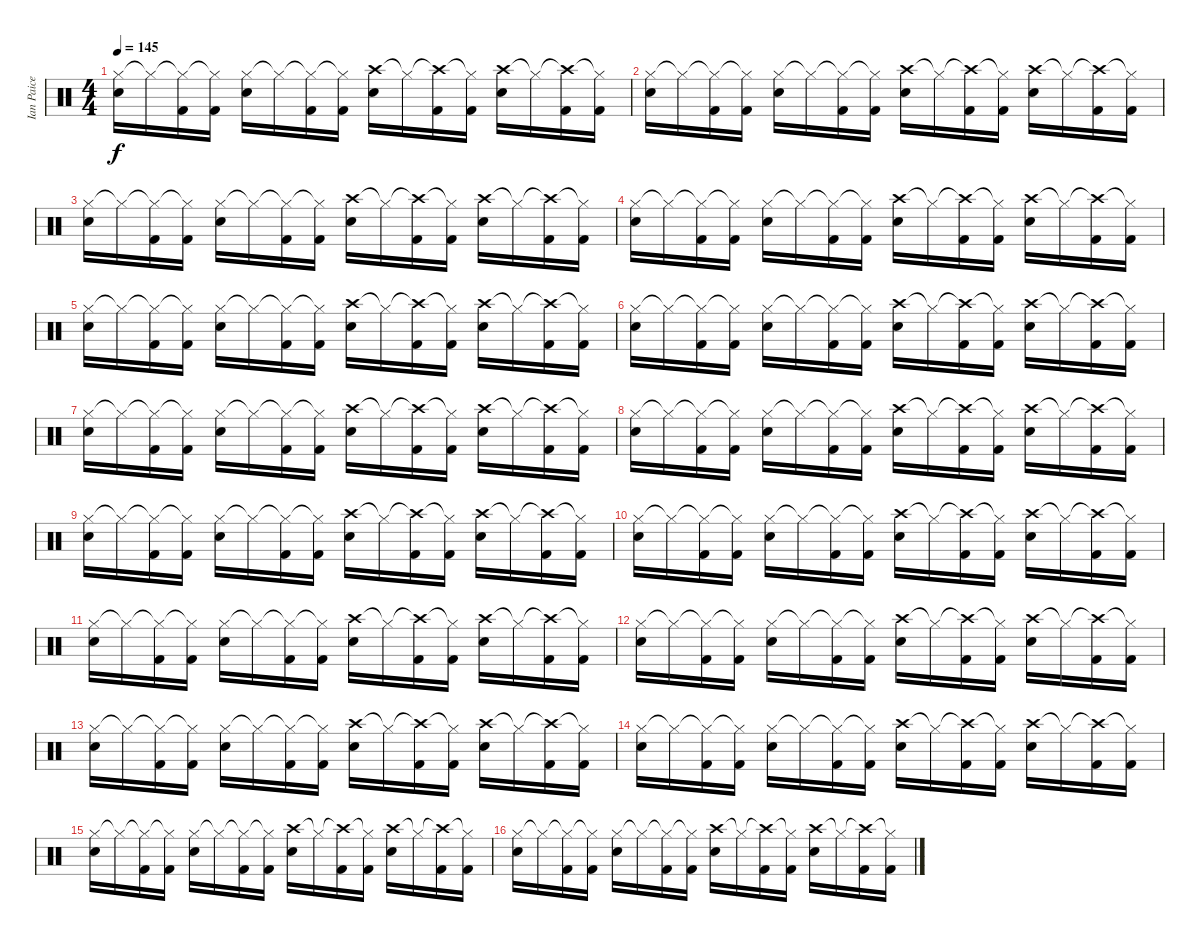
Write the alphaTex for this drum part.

\track ("Ian Paice" "Ian Paice") {instrument percussion}
\staff {score}
\articulation defaults
\ts (4 4)
\tempo 145
\clef neutral
\ks c
("Hi-Hat (closed)" "Snare (hit) 2").16{dy f} "Hi-Hat (closed)"{t}.16 ("Hi-Hat (closed)"{t} "Kick (hit) 2").16 ("Hi-Hat (closed)"{t} "Kick (hit) 2").16 ("Hi-Hat (closed)" "Snare (hit) 2").16 "Hi-Hat (closed)"{t}.16 ("Hi-Hat (closed)"{t} "Kick (hit) 2").16 ("Hi-Hat (closed)"{t} "Kick (hit) 2").16 ("Crash high (hit)" "Snare (hit) 2").16 "Hi-Hat (closed)"{t}.16 ("Crash high (hit)"{t} "Kick (hit) 2").16 ("Hi-Hat (closed)"{t} "Kick (hit) 2").16 ("Crash high (hit)" "Snare (hit) 2").16 "Hi-Hat (closed)"{t}.16 ("Crash high (hit)"{t} "Kick (hit) 2").16 ("Hi-Hat (closed)"{t} "Kick (hit) 2").16 |
("Hi-Hat (closed)" "Snare (hit) 2").16 "Hi-Hat (closed)"{t}.16 ("Hi-Hat (closed)"{t} "Kick (hit) 2").16 ("Hi-Hat (closed)"{t} "Kick (hit) 2").16 ("Hi-Hat (closed)" "Snare (hit) 2").16 "Hi-Hat (closed)"{t}.16 ("Hi-Hat (closed)"{t} "Kick (hit) 2").16 ("Hi-Hat (closed)"{t} "Kick (hit) 2").16 ("Crash high (hit)" "Snare (hit) 2").16 "Hi-Hat (closed)"{t}.16 ("Crash high (hit)"{t} "Kick (hit) 2").16 ("Hi-Hat (closed)"{t} "Kick (hit) 2").16 ("Crash high (hit)" "Snare (hit) 2").16 "Hi-Hat (closed)"{t}.16 ("Crash high (hit)"{t} "Kick (hit) 2").16 ("Hi-Hat (closed)"{t} "Kick (hit) 2").16 |
("Hi-Hat (closed)" "Snare (hit) 2").16 "Hi-Hat (closed)"{t}.16 ("Hi-Hat (closed)"{t} "Kick (hit) 2").16 ("Hi-Hat (closed)"{t} "Kick (hit) 2").16 ("Hi-Hat (closed)" "Snare (hit) 2").16 "Hi-Hat (closed)"{t}.16 ("Hi-Hat (closed)"{t} "Kick (hit) 2").16 ("Hi-Hat (closed)"{t} "Kick (hit) 2").16 ("Crash high (hit)" "Snare (hit) 2").16 "Hi-Hat (closed)"{t}.16 ("Crash high (hit)"{t} "Kick (hit) 2").16 ("Hi-Hat (closed)"{t} "Kick (hit) 2").16 ("Crash high (hit)" "Snare (hit) 2").16 "Hi-Hat (closed)"{t}.16 ("Crash high (hit)"{t} "Kick (hit) 2").16 ("Hi-Hat (closed)"{t} "Kick (hit) 2").16 |
("Hi-Hat (closed)" "Snare (hit) 2").16 "Hi-Hat (closed)"{t}.16 ("Hi-Hat (closed)"{t} "Kick (hit) 2").16 ("Hi-Hat (closed)"{t} "Kick (hit) 2").16 ("Hi-Hat (closed)" "Snare (hit) 2").16 "Hi-Hat (closed)"{t}.16 ("Hi-Hat (closed)"{t} "Kick (hit) 2").16 ("Hi-Hat (closed)"{t} "Kick (hit) 2").16 ("Crash high (hit)" "Snare (hit) 2").16 "Hi-Hat (closed)"{t}.16 ("Crash high (hit)"{t} "Kick (hit) 2").16 ("Hi-Hat (closed)"{t} "Kick (hit) 2").16 ("Crash high (hit)" "Snare (hit) 2").16 "Hi-Hat (closed)"{t}.16 ("Crash high (hit)"{t} "Kick (hit) 2").16 ("Hi-Hat (closed)"{t} "Kick (hit) 2").16 |
("Hi-Hat (closed)" "Snare (hit) 2").16 "Hi-Hat (closed)"{t}.16 ("Hi-Hat (closed)"{t} "Kick (hit) 2").16 ("Hi-Hat (closed)"{t} "Kick (hit) 2").16 ("Hi-Hat (closed)" "Snare (hit) 2").16 "Hi-Hat (closed)"{t}.16 ("Hi-Hat (closed)"{t} "Kick (hit) 2").16 ("Hi-Hat (closed)"{t} "Kick (hit) 2").16 ("Crash high (hit)" "Snare (hit) 2").16 "Hi-Hat (closed)"{t}.16 ("Crash high (hit)"{t} "Kick (hit) 2").16 ("Hi-Hat (closed)"{t} "Kick (hit) 2").16 ("Crash high (hit)" "Snare (hit) 2").16 "Hi-Hat (closed)"{t}.16 ("Crash high (hit)"{t} "Kick (hit) 2").16 ("Hi-Hat (closed)"{t} "Kick (hit) 2").16 |
("Hi-Hat (closed)" "Snare (hit) 2").16 "Hi-Hat (closed)"{t}.16 ("Hi-Hat (closed)"{t} "Kick (hit) 2").16 ("Hi-Hat (closed)"{t} "Kick (hit) 2").16 ("Hi-Hat (closed)" "Snare (hit) 2").16 "Hi-Hat (closed)"{t}.16 ("Hi-Hat (closed)"{t} "Kick (hit) 2").16 ("Hi-Hat (closed)"{t} "Kick (hit) 2").16 ("Crash high (hit)" "Snare (hit) 2").16 "Hi-Hat (closed)"{t}.16 ("Crash high (hit)"{t} "Kick (hit) 2").16 ("Hi-Hat (closed)"{t} "Kick (hit) 2").16 ("Crash high (hit)" "Snare (hit) 2").16 "Hi-Hat (closed)"{t}.16 ("Crash high (hit)"{t} "Kick (hit) 2").16 ("Hi-Hat (closed)"{t} "Kick (hit) 2").16 |
("Hi-Hat (closed)" "Snare (hit) 2").16 "Hi-Hat (closed)"{t}.16 ("Hi-Hat (closed)"{t} "Kick (hit) 2").16 ("Hi-Hat (closed)"{t} "Kick (hit) 2").16 ("Hi-Hat (closed)" "Snare (hit) 2").16 "Hi-Hat (closed)"{t}.16 ("Hi-Hat (closed)"{t} "Kick (hit) 2").16 ("Hi-Hat (closed)"{t} "Kick (hit) 2").16 ("Crash high (hit)" "Snare (hit) 2").16 "Hi-Hat (closed)"{t}.16 ("Crash high (hit)"{t} "Kick (hit) 2").16 ("Hi-Hat (closed)"{t} "Kick (hit) 2").16 ("Crash high (hit)" "Snare (hit) 2").16 "Hi-Hat (closed)"{t}.16 ("Crash high (hit)"{t} "Kick (hit) 2").16 ("Hi-Hat (closed)"{t} "Kick (hit) 2").16 |
("Hi-Hat (closed)" "Snare (hit) 2").16 "Hi-Hat (closed)"{t}.16 ("Hi-Hat (closed)"{t} "Kick (hit) 2").16 ("Hi-Hat (closed)"{t} "Kick (hit) 2").16 ("Hi-Hat (closed)" "Snare (hit) 2").16 "Hi-Hat (closed)"{t}.16 ("Hi-Hat (closed)"{t} "Kick (hit) 2").16 ("Hi-Hat (closed)"{t} "Kick (hit) 2").16 ("Crash high (hit)" "Snare (hit) 2").16 "Hi-Hat (closed)"{t}.16 ("Crash high (hit)"{t} "Kick (hit) 2").16 ("Hi-Hat (closed)"{t} "Kick (hit) 2").16 ("Crash high (hit)" "Snare (hit) 2").16 "Hi-Hat (closed)"{t}.16 ("Crash high (hit)"{t} "Kick (hit) 2").16 ("Hi-Hat (closed)"{t} "Kick (hit) 2").16 |
("Hi-Hat (closed)" "Snare (hit) 2").16 "Hi-Hat (closed)"{t}.16 ("Hi-Hat (closed)"{t} "Kick (hit) 2").16 ("Hi-Hat (closed)"{t} "Kick (hit) 2").16 ("Hi-Hat (closed)" "Snare (hit) 2").16 "Hi-Hat (closed)"{t}.16 ("Hi-Hat (closed)"{t} "Kick (hit) 2").16 ("Hi-Hat (closed)"{t} "Kick (hit) 2").16 ("Crash high (hit)" "Snare (hit) 2").16 "Hi-Hat (closed)"{t}.16 ("Crash high (hit)"{t} "Kick (hit) 2").16 ("Hi-Hat (closed)"{t} "Kick (hit) 2").16 ("Crash high (hit)" "Snare (hit) 2").16 "Hi-Hat (closed)"{t}.16 ("Crash high (hit)"{t} "Kick (hit) 2").16 ("Hi-Hat (closed)"{t} "Kick (hit) 2").16 |
("Hi-Hat (closed)" "Snare (hit) 2").16 "Hi-Hat (closed)"{t}.16 ("Hi-Hat (closed)"{t} "Kick (hit) 2").16 ("Hi-Hat (closed)"{t} "Kick (hit) 2").16 ("Hi-Hat (closed)" "Snare (hit) 2").16 "Hi-Hat (closed)"{t}.16 ("Hi-Hat (closed)"{t} "Kick (hit) 2").16 ("Hi-Hat (closed)"{t} "Kick (hit) 2").16 ("Crash high (hit)" "Snare (hit) 2").16 "Hi-Hat (closed)"{t}.16 ("Crash high (hit)"{t} "Kick (hit) 2").16 ("Hi-Hat (closed)"{t} "Kick (hit) 2").16 ("Crash high (hit)" "Snare (hit) 2").16 "Hi-Hat (closed)"{t}.16 ("Crash high (hit)"{t} "Kick (hit) 2").16 ("Hi-Hat (closed)"{t} "Kick (hit) 2").16 |
("Hi-Hat (closed)" "Snare (hit) 2").16 "Hi-Hat (closed)"{t}.16 ("Hi-Hat (closed)"{t} "Kick (hit) 2").16 ("Hi-Hat (closed)"{t} "Kick (hit) 2").16 ("Hi-Hat (closed)" "Snare (hit) 2").16 "Hi-Hat (closed)"{t}.16 ("Hi-Hat (closed)"{t} "Kick (hit) 2").16 ("Hi-Hat (closed)"{t} "Kick (hit) 2").16 ("Crash high (hit)" "Snare (hit) 2").16 "Hi-Hat (closed)"{t}.16 ("Crash high (hit)"{t} "Kick (hit) 2").16 ("Hi-Hat (closed)"{t} "Kick (hit) 2").16 ("Crash high (hit)" "Snare (hit) 2").16 "Hi-Hat (closed)"{t}.16 ("Crash high (hit)"{t} "Kick (hit) 2").16 ("Hi-Hat (closed)"{t} "Kick (hit) 2").16 |
("Hi-Hat (closed)" "Snare (hit) 2").16 "Hi-Hat (closed)"{t}.16 ("Hi-Hat (closed)"{t} "Kick (hit) 2").16 ("Hi-Hat (closed)"{t} "Kick (hit) 2").16 ("Hi-Hat (closed)" "Snare (hit) 2").16 "Hi-Hat (closed)"{t}.16 ("Hi-Hat (closed)"{t} "Kick (hit) 2").16 ("Hi-Hat (closed)"{t} "Kick (hit) 2").16 ("Crash high (hit)" "Snare (hit) 2").16 "Hi-Hat (closed)"{t}.16 ("Crash high (hit)"{t} "Kick (hit) 2").16 ("Hi-Hat (closed)"{t} "Kick (hit) 2").16 ("Crash high (hit)" "Snare (hit) 2").16 "Hi-Hat (closed)"{t}.16 ("Crash high (hit)"{t} "Kick (hit) 2").16 ("Hi-Hat (closed)"{t} "Kick (hit) 2").16 |
("Hi-Hat (closed)" "Snare (hit) 2").16 "Hi-Hat (closed)"{t}.16 ("Hi-Hat (closed)"{t} "Kick (hit) 2").16 ("Hi-Hat (closed)"{t} "Kick (hit) 2").16 ("Hi-Hat (closed)" "Snare (hit) 2").16 "Hi-Hat (closed)"{t}.16 ("Hi-Hat (closed)"{t} "Kick (hit) 2").16 ("Hi-Hat (closed)"{t} "Kick (hit) 2").16 ("Crash high (hit)" "Snare (hit) 2").16 "Hi-Hat (closed)"{t}.16 ("Crash high (hit)"{t} "Kick (hit) 2").16 ("Hi-Hat (closed)"{t} "Kick (hit) 2").16 ("Crash high (hit)" "Snare (hit) 2").16 "Hi-Hat (closed)"{t}.16 ("Crash high (hit)"{t} "Kick (hit) 2").16 ("Hi-Hat (closed)"{t} "Kick (hit) 2").16 |
("Hi-Hat (closed)" "Snare (hit) 2").16 "Hi-Hat (closed)"{t}.16 ("Hi-Hat (closed)"{t} "Kick (hit) 2").16 ("Hi-Hat (closed)"{t} "Kick (hit) 2").16 ("Hi-Hat (closed)" "Snare (hit) 2").16 "Hi-Hat (closed)"{t}.16 ("Hi-Hat (closed)"{t} "Kick (hit) 2").16 ("Hi-Hat (closed)"{t} "Kick (hit) 2").16 ("Crash high (hit)" "Snare (hit) 2").16 "Hi-Hat (closed)"{t}.16 ("Crash high (hit)"{t} "Kick (hit) 2").16 ("Hi-Hat (closed)"{t} "Kick (hit) 2").16 ("Crash high (hit)" "Snare (hit) 2").16 "Hi-Hat (closed)"{t}.16 ("Crash high (hit)"{t} "Kick (hit) 2").16 ("Hi-Hat (closed)"{t} "Kick (hit) 2").16 |
("Hi-Hat (closed)" "Snare (hit) 2").16 "Hi-Hat (closed)"{t}.16 ("Hi-Hat (closed)"{t} "Kick (hit) 2").16 ("Hi-Hat (closed)"{t} "Kick (hit) 2").16 ("Hi-Hat (closed)" "Snare (hit) 2").16 "Hi-Hat (closed)"{t}.16 ("Hi-Hat (closed)"{t} "Kick (hit) 2").16 ("Hi-Hat (closed)"{t} "Kick (hit) 2").16 ("Crash high (hit)" "Snare (hit) 2").16 "Hi-Hat (closed)"{t}.16 ("Crash high (hit)"{t} "Kick (hit) 2").16 ("Hi-Hat (closed)"{t} "Kick (hit) 2").16 ("Crash high (hit)" "Snare (hit) 2").16 "Hi-Hat (closed)"{t}.16 ("Crash high (hit)"{t} "Kick (hit) 2").16 ("Hi-Hat (closed)"{t} "Kick (hit) 2").16 |
("Hi-Hat (closed)" "Snare (hit) 2").16 "Hi-Hat (closed)"{t}.16 ("Hi-Hat (closed)"{t} "Kick (hit) 2").16 ("Hi-Hat (closed)"{t} "Kick (hit) 2").16 ("Hi-Hat (closed)" "Snare (hit) 2").16 "Hi-Hat (closed)"{t}.16 ("Hi-Hat (closed)"{t} "Kick (hit) 2").16 ("Hi-Hat (closed)"{t} "Kick (hit) 2").16 ("Crash high (hit)" "Snare (hit) 2").16 "Hi-Hat (closed)"{t}.16 ("Crash high (hit)"{t} "Kick (hit) 2").16 ("Hi-Hat (closed)"{t} "Kick (hit) 2").16 ("Crash high (hit)" "Snare (hit) 2").16 "Hi-Hat (closed)"{t}.16 ("Crash high (hit)"{t} "Kick (hit) 2").16 ("Hi-Hat (closed)"{t} "Kick (hit) 2").16
